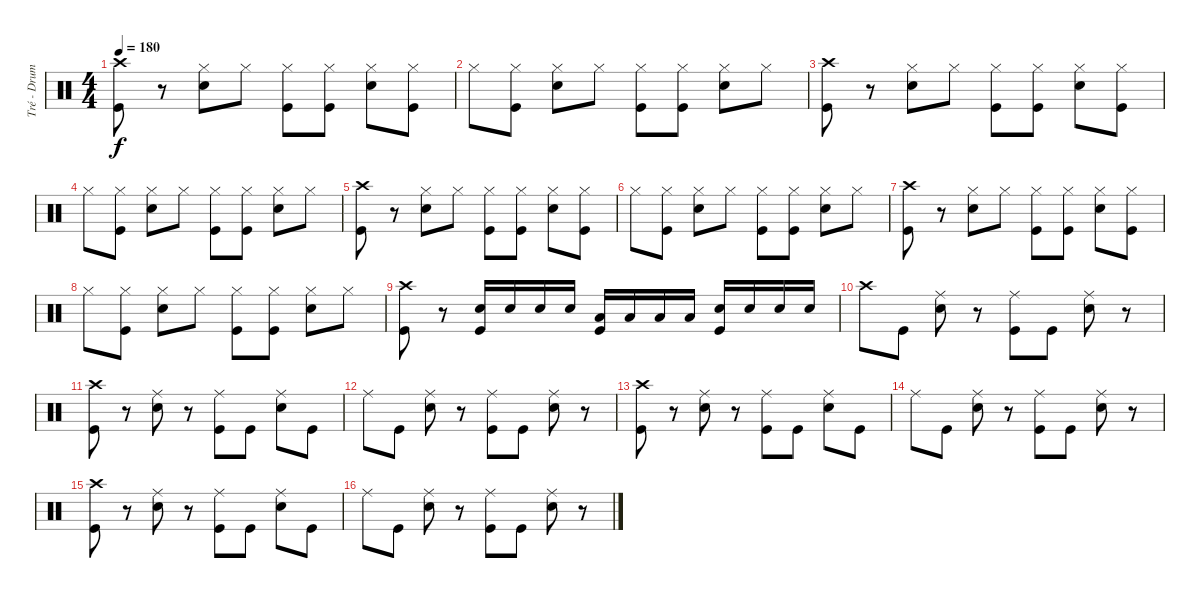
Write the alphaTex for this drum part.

\track ("Tré - Drums" "Tré - Drum") {instrument percussion}
\staff {score}
\articulation defaults
\ts (4 4)
\tempo 180
\clef neutral
\ks c
("Crash high (hit)" "Kick (hit)").8{dy f} r.8 ("Hi-Hat (closed)" "Electric Snare (hit)").8 "Hi-Hat (closed)".8 ("Hi-Hat (closed)" "Kick (hit)").8 ("Hi-Hat (closed)" "Kick (hit)").8 ("Hi-Hat (closed)" "Electric Snare (hit)").8 ("Hi-Hat (closed)" "Kick (hit)").8 |
"Hi-Hat (closed)".8 ("Hi-Hat (closed)" "Kick (hit)").8 ("Hi-Hat (closed)" "Electric Snare (hit)").8 "Hi-Hat (closed)".8 ("Hi-Hat (closed)" "Kick (hit)").8 ("Hi-Hat (closed)" "Kick (hit)").8 ("Hi-Hat (closed)" "Electric Snare (hit)").8 "Hi-Hat (closed)".8 |
("Crash high (hit)" "Kick (hit)").8 r.8 ("Hi-Hat (closed)" "Electric Snare (hit)").8 "Hi-Hat (closed)".8 ("Hi-Hat (closed)" "Kick (hit)").8 ("Hi-Hat (closed)" "Kick (hit)").8 ("Hi-Hat (closed)" "Electric Snare (hit)").8 ("Hi-Hat (closed)" "Kick (hit)").8 |
"Hi-Hat (closed)".8 ("Hi-Hat (closed)" "Kick (hit)").8 ("Hi-Hat (closed)" "Electric Snare (hit)").8 "Hi-Hat (closed)".8 ("Hi-Hat (closed)" "Kick (hit)").8 ("Hi-Hat (closed)" "Kick (hit)").8 ("Hi-Hat (closed)" "Electric Snare (hit)").8 "Hi-Hat (closed)".8 |
("Crash high (hit)" "Kick (hit)").8 r.8 ("Hi-Hat (closed)" "Electric Snare (hit)").8 "Hi-Hat (closed)".8 ("Hi-Hat (closed)" "Kick (hit)").8 ("Hi-Hat (closed)" "Kick (hit)").8 ("Hi-Hat (closed)" "Electric Snare (hit)").8 ("Hi-Hat (closed)" "Kick (hit)").8 |
"Hi-Hat (closed)".8 ("Hi-Hat (closed)" "Kick (hit)").8 ("Hi-Hat (closed)" "Electric Snare (hit)").8 "Hi-Hat (closed)".8 ("Hi-Hat (closed)" "Kick (hit)").8 ("Hi-Hat (closed)" "Kick (hit)").8 ("Hi-Hat (closed)" "Electric Snare (hit)").8 "Hi-Hat (closed)".8 |
("Crash high (hit)" "Kick (hit)").8 r.8 ("Hi-Hat (closed)" "Electric Snare (hit)").8 "Hi-Hat (closed)".8 ("Hi-Hat (closed)" "Kick (hit)").8 ("Hi-Hat (closed)" "Kick (hit)").8 ("Hi-Hat (closed)" "Electric Snare (hit)").8 ("Hi-Hat (closed)" "Kick (hit)").8 |
"Hi-Hat (closed)".8 ("Hi-Hat (closed)" "Kick (hit)").8 ("Hi-Hat (closed)" "Electric Snare (hit)").8 "Hi-Hat (closed)".8 ("Hi-Hat (closed)" "Kick (hit)").8 ("Hi-Hat (closed)" "Kick (hit)").8 ("Hi-Hat (closed)" "Electric Snare (hit)").8 "Hi-Hat (closed)".8 |
("Crash high (hit)" "Kick (hit)").8 r.8 ("Electric Snare (hit)" "Kick (hit)").16 "Electric Snare (hit)".16 "Electric Snare (hit)".16 "Electric Snare (hit)".16 ("Low Floor Tom (hit)" "Kick (hit)").16 "Low Floor Tom (hit)".16 "Low Floor Tom (hit)".16 "Low Floor Tom (hit)".16 ("Electric Snare (hit)" "Kick (hit)").16 "Electric Snare (hit)".16 "Electric Snare (hit)".16 "Electric Snare (hit)".16 |
"Crash high (hit)".8 "Kick (hit)".8 ("Ride (middle)" "Electric Snare (hit)").8 r.8 ("Ride (middle)" "Kick (hit)").8 "Kick (hit)".8 ("Ride (middle)" "Electric Snare (hit)").8 r.8 |
("Crash high (hit)" "Kick (hit)").8 r.8 ("Ride (middle)" "Electric Snare (hit)").8 r.8 ("Ride (middle)" "Kick (hit)").8 "Kick (hit)".8 ("Ride (middle)" "Electric Snare (hit)").8 "Kick (hit)".8 |
"Ride (middle)".8 "Kick (hit)".8 ("Ride (middle)" "Electric Snare (hit)").8 r.8 ("Ride (middle)" "Kick (hit)").8 "Kick (hit)".8 ("Ride (middle)" "Electric Snare (hit)").8 r.8 |
("Crash high (hit)" "Kick (hit)").8 r.8 ("Ride (middle)" "Electric Snare (hit)").8 r.8 ("Ride (middle)" "Kick (hit)").8 "Kick (hit)".8 ("Ride (middle)" "Electric Snare (hit)").8 "Kick (hit)".8 |
"Ride (middle)".8 "Kick (hit)".8 ("Ride (middle)" "Electric Snare (hit)").8 r.8 ("Ride (middle)" "Kick (hit)").8 "Kick (hit)".8 ("Ride (middle)" "Electric Snare (hit)").8 r.8 |
("Crash high (hit)" "Kick (hit)").8 r.8 ("Ride (middle)" "Electric Snare (hit)").8 r.8 ("Ride (middle)" "Kick (hit)").8 "Kick (hit)".8 ("Ride (middle)" "Electric Snare (hit)").8 "Kick (hit)".8 |
"Ride (middle)".8 "Kick (hit)".8 ("Ride (middle)" "Electric Snare (hit)").8 r.8 ("Ride (middle)" "Kick (hit)").8 "Kick (hit)".8 ("Ride (middle)" "Electric Snare (hit)").8 r.8
